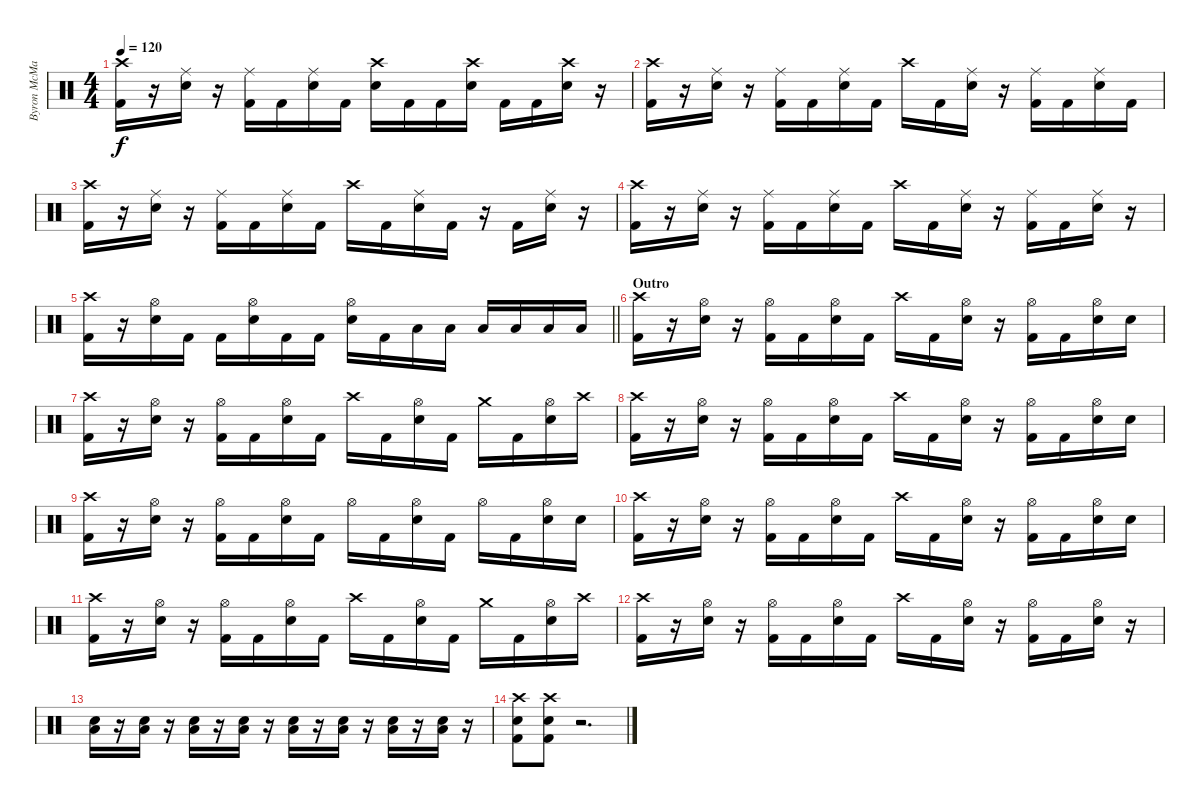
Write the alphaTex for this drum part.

\track ("Byron McMackin" "Byron McMa") {instrument percussion}
\staff {score}
\articulation defaults
\ts (4 4)
\tempo 120
\clef neutral
\ks c
("Crash high (hit)" "Kick (hit) 2").16{dy f} r.16 ("Ride (middle)" "Snare (hit) 2").16 r.16 ("Ride (middle)" "Kick (hit) 2").16 "Kick (hit) 2".16 ("Ride (middle)" "Snare (hit) 2").16 "Kick (hit) 2".16 ("Crash high (hit)" "Snare (hit) 2").16 "Kick (hit) 2".16 "Kick (hit) 2".16 ("Crash high (hit)" "Snare (hit) 2").16 "Kick (hit) 2".16 "Kick (hit) 2".16 ("Crash high (hit)" "Snare (hit) 2").16 r.16 |
("Crash high (hit)" "Kick (hit) 2").16 r.16 ("Ride (middle)" "Snare (hit) 2").16 r.16 ("Ride (middle)" "Kick (hit) 2").16 "Kick (hit) 2".16 ("Ride (middle)" "Snare (hit) 2").16 "Kick (hit) 2".16 "Crash high (hit)".16 "Kick (hit) 2".16 ("Ride (middle)" "Snare (hit) 2").16 r.16 ("Ride (middle)" "Kick (hit) 2").16 "Kick (hit) 2".16 ("Ride (middle)" "Snare (hit) 2").16 "Kick (hit) 2".16 |
("Crash high (hit)" "Kick (hit) 2").16 r.16 ("Ride (middle)" "Snare (hit) 2").16 r.16 ("Ride (middle)" "Kick (hit) 2").16 "Kick (hit) 2".16 ("Ride (middle)" "Snare (hit) 2").16 "Kick (hit) 2".16 "Crash high (hit)".16 "Kick (hit) 2".16 ("Ride (middle)" "Snare (hit) 2").16 "Kick (hit) 2".16 r.16 "Kick (hit) 2".16 ("Ride (middle)" "Snare (hit) 2").16 r.16 |
("Crash high (hit)" "Kick (hit) 2").16 r.16 ("Ride (middle)" "Snare (hit) 2").16 r.16 ("Ride (middle)" "Kick (hit) 2").16 "Kick (hit) 2".16 ("Ride (middle)" "Snare (hit) 2").16 "Kick (hit) 2".16 "Crash high (hit)".16 "Kick (hit) 2".16 ("Ride (middle)" "Snare (hit) 2").16 r.16 ("Ride (middle)" "Kick (hit) 2").16 "Kick (hit) 2".16 ("Ride (middle)" "Snare (hit) 2").16 r.16 |
\barLineRight lightlight
("Crash high (hit)" "Kick (hit) 2").16 r.16 ("Hi-Hat (open)" "Snare (hit) 2").16 "Kick (hit) 2".16 "Kick (hit) 2".16 ("Hi-Hat (open)" "Snare (hit) 2").16 "Kick (hit) 2".16 "Kick (hit) 2".16 ("Hi-Hat (open)" "Snare (hit) 2").16 "Kick (hit) 2".16 "Low Floor Tom (hit)".16 "Low Floor Tom (hit)".16 "Low Floor Tom (hit)".16 "Low Floor Tom (hit)".16 "Low Floor Tom (hit)".16 "Low Floor Tom (hit)".16 |
\section ("" "Outro")
("Crash high (hit)" "Kick (hit) 2").16 r.16 ("Hi-Hat (open)" "Snare (hit) 2").16 r.16 ("Hi-Hat (open)" "Kick (hit) 2").16 "Kick (hit) 2".16 ("Hi-Hat (open)" "Snare (hit) 2").16 "Kick (hit) 2".16 "Crash high (hit)".16 "Kick (hit) 2".16 ("Hi-Hat (open)" "Snare (hit) 2").16 r.16 ("Hi-Hat (open)" "Kick (hit) 2").16 "Kick (hit) 2".16 ("Hi-Hat (open)" "Snare (hit) 2").16 "Snare (hit) 2".16 |
("Crash high (hit)" "Kick (hit) 2").16 r.16 ("Hi-Hat (open)" "Snare (hit) 2").16 r.16 ("Hi-Hat (open)" "Kick (hit) 2").16 "Kick (hit) 2".16 ("Hi-Hat (open)" "Snare (hit) 2").16 "Kick (hit) 2".16 "Crash high (hit)".16 "Kick (hit) 2".16 ("Hi-Hat (open)" "Snare (hit) 2").16 "Kick (hit) 2".16 "Crash medium (hit)".16 "Kick (hit) 2".16 ("Hi-Hat (open)" "Snare (hit) 2").16 "Crash high (hit)".16 |
("Crash high (hit)" "Kick (hit) 2").16 r.16 ("Hi-Hat (open)" "Snare (hit) 2").16 r.16 ("Hi-Hat (open)" "Kick (hit) 2").16 "Kick (hit) 2".16 ("Hi-Hat (open)" "Snare (hit) 2").16 "Kick (hit) 2".16 "Crash high (hit)".16 "Kick (hit) 2".16 ("Hi-Hat (open)" "Snare (hit) 2").16 r.16 ("Hi-Hat (open)" "Kick (hit) 2").16 "Kick (hit) 2".16 ("Hi-Hat (open)" "Snare (hit) 2").16 "Snare (hit) 2".16 |
("Crash high (hit)" "Kick (hit) 2").16 r.16 ("Hi-Hat (open)" "Snare (hit) 2").16 r.16 ("Hi-Hat (open)" "Kick (hit) 2").16 "Kick (hit) 2".16 ("Hi-Hat (open)" "Snare (hit) 2").16 "Kick (hit) 2".16 "Hi-Hat (open)".16 "Kick (hit) 2".16 ("Hi-Hat (open)" "Snare (hit) 2").16 "Kick (hit) 2".16 "Hi-Hat (open)".16 "Kick (hit) 2".16 ("Hi-Hat (open)" "Snare (hit) 2").16 "Snare (hit) 2".16 |
("Crash high (hit)" "Kick (hit) 2").16 r.16 ("Hi-Hat (open)" "Snare (hit) 2").16 r.16 ("Hi-Hat (open)" "Kick (hit) 2").16 "Kick (hit) 2".16 ("Hi-Hat (open)" "Snare (hit) 2").16 "Kick (hit) 2".16 "Crash high (hit)".16 "Kick (hit) 2".16 ("Hi-Hat (open)" "Snare (hit) 2").16 r.16 ("Hi-Hat (open)" "Kick (hit) 2").16 "Kick (hit) 2".16 ("Hi-Hat (open)" "Snare (hit) 2").16 "Snare (hit) 2".16 |
("Crash high (hit)" "Kick (hit) 2").16 r.16 ("Hi-Hat (open)" "Snare (hit) 2").16 r.16 ("Hi-Hat (open)" "Kick (hit) 2").16 "Kick (hit) 2".16 ("Hi-Hat (open)" "Snare (hit) 2").16 "Kick (hit) 2".16 "Crash high (hit)".16 "Kick (hit) 2".16 ("Hi-Hat (open)" "Snare (hit) 2").16 "Kick (hit) 2".16 "Crash medium (hit)".16 "Kick (hit) 2".16 ("Hi-Hat (open)" "Snare (hit) 2").16 "Crash high (hit)".16 |
("Crash high (hit)" "Kick (hit) 2").16 r.16 ("Hi-Hat (open)" "Snare (hit) 2").16 r.16 ("Hi-Hat (open)" "Kick (hit) 2").16 "Kick (hit) 2".16 ("Hi-Hat (open)" "Snare (hit) 2").16 "Kick (hit) 2".16 "Crash high (hit)".16 "Kick (hit) 2".16 ("Hi-Hat (open)" "Snare (hit) 2").16 r.16 ("Hi-Hat (open)" "Kick (hit) 2").16 "Kick (hit) 2".16 ("Hi-Hat (open)" "Snare (hit) 2").16 r.16 |
("Low Floor Tom (hit)" "Snare (hit) 2").16 r.16 ("Low Floor Tom (hit)" "Snare (hit) 2").16 r.16 ("Low Floor Tom (hit)" "Snare (hit) 2").16 r.16 ("Low Floor Tom (hit)" "Snare (hit) 2").16 r.16 ("Low Floor Tom (hit)" "Snare (hit) 2").16 r.16 ("Low Floor Tom (hit)" "Snare (hit) 2").16 r.16 ("Low Floor Tom (hit)" "Snare (hit) 2").16 r.16 ("Low Floor Tom (hit)" "Snare (hit) 2").16 r.16 |
("Crash high (hit)" "Snare (hit) 2" "Kick (hit) 2").8 ("Crash high (hit)" "Snare (hit) 2" "Kick (hit) 2").8 r.2{d}
